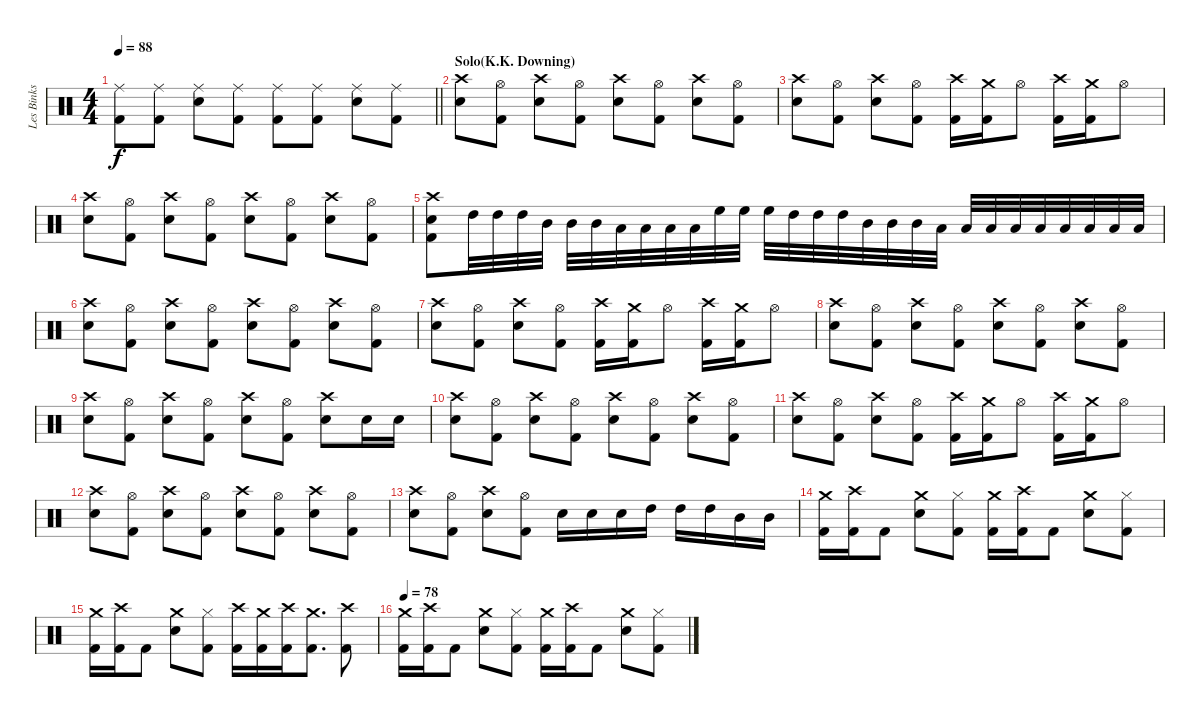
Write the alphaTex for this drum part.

\track ("Les Binks" "Les Binks") {instrument percussion}
\staff {score}
\articulation defaults
\ts (4 4)
\tempo 88
\clef neutral
\barLineRight lightlight
\ks c
("Ride (middle)" "Kick (hit) 2").8{dy f} ("Ride (middle)" "Kick (hit) 2").8 ("Ride (middle)" "Snare (hit) 2").8 ("Ride (middle)" "Kick (hit) 2").8 ("Ride (middle)" "Kick (hit) 2").8 ("Ride (middle)" "Kick (hit) 2").8 ("Ride (middle)" "Snare (hit) 2").8 ("Ride (middle)" "Kick (hit) 2").8 |
\section ("" "Solo(K.K. Downing)")
("Crash high (hit)" "Snare (hit) 2").8 ("Hi-Hat (open)" "Kick (hit) 2").8 ("Crash high (hit)" "Snare (hit) 2").8 ("Hi-Hat (open)" "Kick (hit) 2").8 ("Crash high (hit)" "Snare (hit) 2").8 ("Hi-Hat (open)" "Kick (hit) 2").8 ("Crash high (hit)" "Snare (hit) 2").8 ("Hi-Hat (open)" "Kick (hit) 2").8 |
("Crash high (hit)" "Snare (hit) 2").8 ("Hi-Hat (open)" "Kick (hit) 2").8 ("Crash high (hit)" "Snare (hit) 2").8 ("Hi-Hat (open)" "Kick (hit) 2").8 ("Crash high (hit)" "Kick (hit) 2").16 ("Crash medium (hit)" "Kick (hit) 2").16 "Hi-Hat (open)".8 ("Crash high (hit)" "Kick (hit) 2").16 ("Crash medium (hit)" "Kick (hit) 2").16 "Hi-Hat (open)".8 |
("Crash high (hit)" "Snare (hit) 2").8 ("Hi-Hat (open)" "Kick (hit) 2").8 ("Crash high (hit)" "Snare (hit) 2").8 ("Hi-Hat (open)" "Kick (hit) 2").8 ("Crash high (hit)" "Snare (hit) 2").8 ("Hi-Hat (open)" "Kick (hit) 2").8 ("Crash high (hit)" "Snare (hit) 2").8 ("Hi-Hat (open)" "Kick (hit) 2").8 |
("Crash high (hit)" "Snare (hit) 2" "Kick (hit) 2").8 "High Tom (hit)".32 "High Tom (hit)".32 "High Tom (hit)".32 "Mid Tom (hit)".32 "Mid Tom (hit)".32 "Mid Tom (hit)".32 "Low Tom (hit)".32 "Low Tom (hit)".32 "Low Tom (hit)".32 "Low Floor Tom (hit)".32 "High Floor Tom (hit)".32 "High Floor Tom (hit)".32 "High Floor Tom (hit)".32 "High Tom (hit)".32 "High Tom (hit)".32 "High Tom (hit)".32 "Mid Tom (hit)".32 "Mid Tom (hit)".32 "Mid Tom (hit)".32 "Low Tom (hit)".32 "Low Tom (hit)".32 "Low Tom (hit)".32 "Low Floor Tom (hit)".32 "Low Floor Tom (hit)".32 "Low Floor Tom (hit)".32 "Low Floor Tom (hit)".32 "Low Floor Tom (hit)".32 "Low Floor Tom (hit)".32 |
("Crash high (hit)" "Snare (hit) 2").8 ("Hi-Hat (open)" "Kick (hit) 2").8 ("Crash high (hit)" "Snare (hit) 2").8 ("Hi-Hat (open)" "Kick (hit) 2").8 ("Crash high (hit)" "Snare (hit) 2").8 ("Hi-Hat (open)" "Kick (hit) 2").8 ("Crash high (hit)" "Snare (hit) 2").8 ("Hi-Hat (open)" "Kick (hit) 2").8 |
("Crash high (hit)" "Snare (hit) 2").8 ("Hi-Hat (open)" "Kick (hit) 2").8 ("Crash high (hit)" "Snare (hit) 2").8 ("Hi-Hat (open)" "Kick (hit) 2").8 ("Crash high (hit)" "Kick (hit) 2").16 ("Crash medium (hit)" "Kick (hit) 2").16 "Hi-Hat (open)".8 ("Crash high (hit)" "Kick (hit) 2").16 ("Crash medium (hit)" "Kick (hit) 2").16 "Hi-Hat (open)".8 |
("Crash high (hit)" "Snare (hit) 2").8 ("Hi-Hat (open)" "Kick (hit) 2").8 ("Crash high (hit)" "Snare (hit) 2").8 ("Hi-Hat (open)" "Kick (hit) 2").8 ("Crash high (hit)" "Snare (hit) 2").8 ("Hi-Hat (open)" "Kick (hit) 2").8 ("Crash high (hit)" "Snare (hit) 2").8 ("Hi-Hat (open)" "Kick (hit) 2").8 |
("Crash high (hit)" "Snare (hit) 2").8 ("Hi-Hat (open)" "Kick (hit) 2").8 ("Crash high (hit)" "Snare (hit) 2").8 ("Hi-Hat (open)" "Kick (hit) 2").8 ("Crash high (hit)" "Snare (hit) 2").8 ("Hi-Hat (open)" "Kick (hit) 2").8 ("Crash high (hit)" "Snare (hit) 2").8 "Snare (hit) 2".16 "Snare (hit) 2".16 |
("Crash high (hit)" "Snare (hit) 2").8 ("Hi-Hat (open)" "Kick (hit) 2").8 ("Crash high (hit)" "Snare (hit) 2").8 ("Hi-Hat (open)" "Kick (hit) 2").8 ("Crash high (hit)" "Snare (hit) 2").8 ("Hi-Hat (open)" "Kick (hit) 2").8 ("Crash high (hit)" "Snare (hit) 2").8 ("Hi-Hat (open)" "Kick (hit) 2").8 |
("Crash high (hit)" "Snare (hit) 2").8 ("Hi-Hat (open)" "Kick (hit) 2").8 ("Crash high (hit)" "Snare (hit) 2").8 ("Hi-Hat (open)" "Kick (hit) 2").8 ("Crash high (hit)" "Kick (hit) 2").16 ("Crash medium (hit)" "Kick (hit) 2").16 "Hi-Hat (open)".8 ("Crash high (hit)" "Kick (hit) 2").16 ("Crash medium (hit)" "Kick (hit) 2").16 "Hi-Hat (open)".8 |
("Crash high (hit)" "Snare (hit) 2").8 ("Hi-Hat (open)" "Kick (hit) 2").8 ("Crash high (hit)" "Snare (hit) 2").8 ("Hi-Hat (open)" "Kick (hit) 2").8 ("Crash high (hit)" "Snare (hit) 2").8 ("Hi-Hat (open)" "Kick (hit) 2").8 ("Crash high (hit)" "Snare (hit) 2").8 ("Hi-Hat (open)" "Kick (hit) 2").8 |
("Crash high (hit)" "Snare (hit) 2").8 ("Hi-Hat (open)" "Kick (hit) 2").8 ("Crash high (hit)" "Snare (hit) 2").8 ("Hi-Hat (open)" "Kick (hit) 2").8 "Snare (hit) 2".16 "Snare (hit) 2".16 "Snare (hit) 2".16 "High Tom (hit)".16 "High Tom (hit)".16 "High Tom (hit)".16 "Mid Tom (hit)".16 "Mid Tom (hit)".16 |
("Crash medium (hit)" "Kick (hit) 2").16 ("Crash high (hit)" "Kick (hit) 2").16 "Kick (hit) 2".8 ("Crash medium (hit)" "Snare (hit) 2").8 ("Hi-Hat (closed)" "Kick (hit) 2").8 ("Crash medium (hit)" "Kick (hit) 2").16 ("Crash high (hit)" "Kick (hit) 2").16 "Kick (hit) 2".8 ("Crash medium (hit)" "Snare (hit) 2").8 ("Hi-Hat (closed)" "Kick (hit) 2").8 |
("Crash medium (hit)" "Kick (hit) 2").16 ("Crash high (hit)" "Kick (hit) 2").16 "Kick (hit) 2".8 ("Crash medium (hit)" "Snare (hit) 2").8 ("Hi-Hat (closed)" "Kick (hit) 2").8 ("Crash high (hit)" "Kick (hit) 2").16 ("Crash medium (hit)" "Kick (hit) 2").16 ("Crash high (hit)" "Kick (hit) 2").16 ("Crash medium (hit)" "Kick (hit) 2").8{d} ("Crash high (hit)" "Kick (hit) 2").8 |
\tempo 78
("Crash medium (hit)" "Kick (hit) 2").16 ("Crash high (hit)" "Kick (hit) 2").16 "Kick (hit) 2".8 ("Crash medium (hit)" "Snare (hit) 2").8 ("Hi-Hat (closed)" "Kick (hit) 2").8 ("Crash medium (hit)" "Kick (hit) 2").16 ("Crash high (hit)" "Kick (hit) 2").16 "Kick (hit) 2".8 ("Crash medium (hit)" "Snare (hit) 2").8 ("Hi-Hat (closed)" "Kick (hit) 2").8
